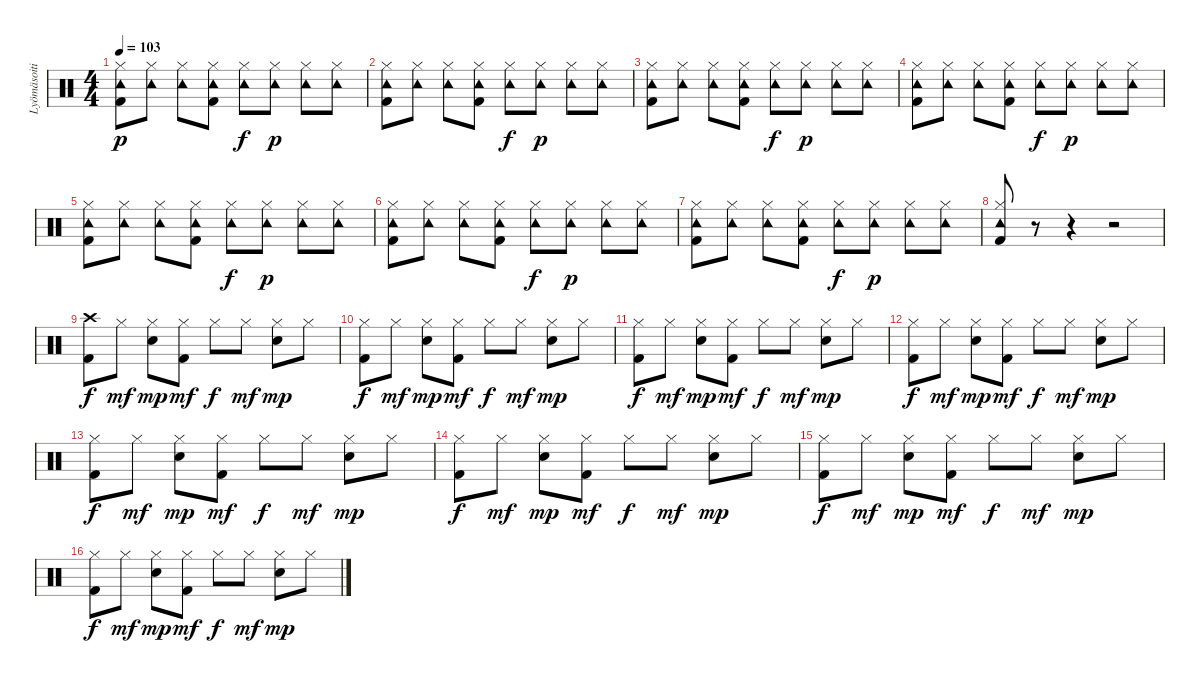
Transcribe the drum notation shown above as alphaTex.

\track ("Lyömäsoitin" "Lyömäsoiti") {instrument percussion}
\staff {score}
\articulation defaults
\ts (4 4)
\tempo 103
\clef neutral
\ks c
("Kick (hit) 2" "Hi-Hat (closed)" "Tambourine (hit)").8{dy p} ("Hi-Hat (closed)" "Tambourine (hit)").8 ("Hi-Hat (closed)" "Tambourine (hit)").8 ("Kick (hit) 2" "Hi-Hat (closed)" "Tambourine (hit)").8 ("Hi-Hat (closed)" "Tambourine (hit)").8{dy f} ("Hi-Hat (closed)" "Tambourine (hit)").8{dy p} ("Hi-Hat (closed)" "Tambourine (hit)").8 ("Hi-Hat (closed)" "Tambourine (hit)").8 |
("Kick (hit) 2" "Hi-Hat (closed)" "Tambourine (hit)").8 ("Hi-Hat (closed)" "Tambourine (hit)").8 ("Hi-Hat (closed)" "Tambourine (hit)").8 ("Kick (hit) 2" "Hi-Hat (closed)" "Tambourine (hit)").8 ("Hi-Hat (closed)" "Tambourine (hit)").8{dy f} ("Hi-Hat (closed)" "Tambourine (hit)").8{dy p} ("Hi-Hat (closed)" "Tambourine (hit)").8 ("Hi-Hat (closed)" "Tambourine (hit)").8 |
("Kick (hit) 2" "Hi-Hat (closed)" "Tambourine (hit)").8 ("Hi-Hat (closed)" "Tambourine (hit)").8 ("Hi-Hat (closed)" "Tambourine (hit)").8 ("Kick (hit) 2" "Hi-Hat (closed)" "Tambourine (hit)").8 ("Hi-Hat (closed)" "Tambourine (hit)").8{dy f} ("Hi-Hat (closed)" "Tambourine (hit)").8{dy p} ("Hi-Hat (closed)" "Tambourine (hit)").8 ("Hi-Hat (closed)" "Tambourine (hit)").8 |
("Kick (hit) 2" "Hi-Hat (closed)" "Tambourine (hit)").8 ("Hi-Hat (closed)" "Tambourine (hit)").8 ("Hi-Hat (closed)" "Tambourine (hit)").8 ("Kick (hit) 2" "Hi-Hat (closed)" "Tambourine (hit)").8 ("Hi-Hat (closed)" "Tambourine (hit)").8{dy f} ("Hi-Hat (closed)" "Tambourine (hit)").8{dy p} ("Hi-Hat (closed)" "Tambourine (hit)").8 ("Hi-Hat (closed)" "Tambourine (hit)").8 |
("Kick (hit) 2" "Hi-Hat (closed)" "Tambourine (hit)").8 ("Hi-Hat (closed)" "Tambourine (hit)").8 ("Hi-Hat (closed)" "Tambourine (hit)").8 ("Kick (hit) 2" "Hi-Hat (closed)" "Tambourine (hit)").8 ("Hi-Hat (closed)" "Tambourine (hit)").8{dy f} ("Hi-Hat (closed)" "Tambourine (hit)").8{dy p} ("Hi-Hat (closed)" "Tambourine (hit)").8 ("Hi-Hat (closed)" "Tambourine (hit)").8 |
("Kick (hit) 2" "Hi-Hat (closed)" "Tambourine (hit)").8 ("Hi-Hat (closed)" "Tambourine (hit)").8 ("Hi-Hat (closed)" "Tambourine (hit)").8 ("Kick (hit) 2" "Hi-Hat (closed)" "Tambourine (hit)").8 ("Hi-Hat (closed)" "Tambourine (hit)").8{dy f} ("Hi-Hat (closed)" "Tambourine (hit)").8{dy p} ("Hi-Hat (closed)" "Tambourine (hit)").8 ("Hi-Hat (closed)" "Tambourine (hit)").8 |
("Kick (hit) 2" "Hi-Hat (closed)" "Tambourine (hit)").8 ("Hi-Hat (closed)" "Tambourine (hit)").8 ("Hi-Hat (closed)" "Tambourine (hit)").8 ("Kick (hit) 2" "Hi-Hat (closed)" "Tambourine (hit)").8 ("Hi-Hat (closed)" "Tambourine (hit)").8{dy f} ("Hi-Hat (closed)" "Tambourine (hit)").8{dy p} ("Hi-Hat (closed)" "Tambourine (hit)").8 ("Hi-Hat (closed)" "Tambourine (hit)").8 |
("Kick (hit) 2" "Hi-Hat (closed)" "Tambourine (hit)").8 r.8 r.4 r.2 |
("Kick (hit) 2" "Crash high (hit)").8{dy f} "Hi-Hat (closed)".8{dy mf} ("Hi-Hat (closed)" "Snare (hit) 2").8{dy mp} ("Kick (hit) 2" "Hi-Hat (closed)").8{dy mf} "Hi-Hat (closed)".8{dy f} "Hi-Hat (closed)".8{dy mf} ("Hi-Hat (closed)" "Snare (hit) 2").8{dy mp} "Hi-Hat (closed)".8 |
("Kick (hit) 2" "Hi-Hat (closed)").8{dy f} "Hi-Hat (closed)".8{dy mf} ("Hi-Hat (closed)" "Snare (hit) 2").8{dy mp} ("Kick (hit) 2" "Hi-Hat (closed)").8{dy mf} "Hi-Hat (closed)".8{dy f} "Hi-Hat (closed)".8{dy mf} ("Hi-Hat (closed)" "Snare (hit) 2").8{dy mp} "Hi-Hat (closed)".8 |
("Kick (hit) 2" "Hi-Hat (closed)").8{dy f} "Hi-Hat (closed)".8{dy mf} ("Hi-Hat (closed)" "Snare (hit) 2").8{dy mp} ("Kick (hit) 2" "Hi-Hat (closed)").8{dy mf} "Hi-Hat (closed)".8{dy f} "Hi-Hat (closed)".8{dy mf} ("Hi-Hat (closed)" "Snare (hit) 2").8{dy mp} "Hi-Hat (closed)".8 |
("Kick (hit) 2" "Hi-Hat (closed)").8{dy f} "Hi-Hat (closed)".8{dy mf} ("Hi-Hat (closed)" "Snare (hit) 2").8{dy mp} ("Kick (hit) 2" "Hi-Hat (closed)").8{dy mf} "Hi-Hat (closed)".8{dy f} "Hi-Hat (closed)".8{dy mf} ("Hi-Hat (closed)" "Snare (hit) 2").8{dy mp} "Hi-Hat (closed)".8 |
("Kick (hit) 2" "Hi-Hat (closed)").8{dy f} "Hi-Hat (closed)".8{dy mf} ("Hi-Hat (closed)" "Snare (hit) 2").8{dy mp} ("Kick (hit) 2" "Hi-Hat (closed)").8{dy mf} "Hi-Hat (closed)".8{dy f} "Hi-Hat (closed)".8{dy mf} ("Hi-Hat (closed)" "Snare (hit) 2").8{dy mp} "Hi-Hat (closed)".8 |
("Kick (hit) 2" "Hi-Hat (closed)").8{dy f} "Hi-Hat (closed)".8{dy mf} ("Hi-Hat (closed)" "Snare (hit) 2").8{dy mp} ("Kick (hit) 2" "Hi-Hat (closed)").8{dy mf} "Hi-Hat (closed)".8{dy f} "Hi-Hat (closed)".8{dy mf} ("Hi-Hat (closed)" "Snare (hit) 2").8{dy mp} "Hi-Hat (closed)".8 |
("Kick (hit) 2" "Hi-Hat (closed)").8{dy f} "Hi-Hat (closed)".8{dy mf} ("Hi-Hat (closed)" "Snare (hit) 2").8{dy mp} ("Kick (hit) 2" "Hi-Hat (closed)").8{dy mf} "Hi-Hat (closed)".8{dy f} "Hi-Hat (closed)".8{dy mf} ("Hi-Hat (closed)" "Snare (hit) 2").8{dy mp} "Hi-Hat (closed)".8 |
("Kick (hit) 2" "Hi-Hat (closed)").8{dy f} "Hi-Hat (closed)".8{dy mf} ("Hi-Hat (closed)" "Snare (hit) 2").8{dy mp} ("Kick (hit) 2" "Hi-Hat (closed)").8{dy mf} "Hi-Hat (closed)".8{dy f} "Hi-Hat (closed)".8{dy mf} ("Hi-Hat (closed)" "Snare (hit) 2").8{dy mp} "Hi-Hat (closed)".8
